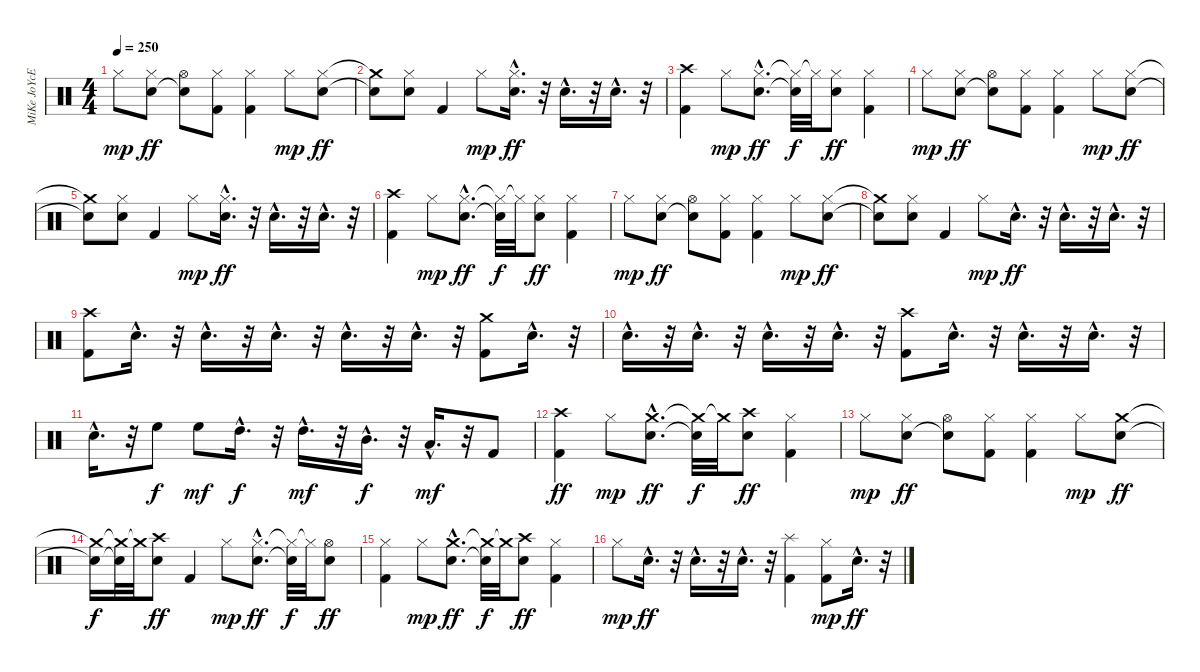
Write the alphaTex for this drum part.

\track ("MiKe JoYcE" "MiKe JoYcE") {instrument percussion}
\staff {score}
\articulation defaults
\ts (4 4)
\tempo 250
\clef neutral
\ks c "Hi-Hat (closed)".8{dy mp}
("Hi-Hat (closed)" "Electric Snare (hit)").8{dy ff} ("Hi-Hat (open)" "Electric Snare (hit)"{t}).8 ("Hi-Hat (closed)" "Kick (hit) 2").8 ("Hi-Hat (closed)" "Kick (hit) 2").4 "Hi-Hat (closed)".8{dy mp} ("Hi-Hat (closed)" "Electric Snare (hit)").8{dy ff} |
("Crash medium (hit)"{t} "Electric Snare (hit)"{t}).8 ("Hi-Hat (closed)" "Electric Snare (hit)").8 "Kick (hit) 2".4 "Hi-Hat (closed)".8{dy mp} ("Hi-Hat (closed)"{hac} "Electric Snare (hit)"{hac}).16{d dy ff} r.32 "Electric Snare (hit)"{hac}.16{d} r.32 "Electric Snare (hit)"{hac}.16{d} r.32 |
("Crash high (hit)" "Kick (hit) 2").4 "Hi-Hat (closed)".8{dy mp} ("Hi-Hat (closed)"{hac} "Electric Snare (hit)"{hac}).8{d dy ff} ("Hi-Hat (closed)"{t} "Electric Snare (hit)"{t}).32{dy f} "Hi-Hat (closed)"{t}.32 ("Hi-Hat (closed)" "Electric Snare (hit)").8{dy ff} ("Hi-Hat (closed)" "Kick (hit) 2").4 |
"Hi-Hat (closed)".8{dy mp} ("Hi-Hat (closed)" "Electric Snare (hit)").8{dy ff} ("Hi-Hat (open)" "Electric Snare (hit)"{t}).8 ("Hi-Hat (closed)" "Kick (hit) 2").8 ("Hi-Hat (closed)" "Kick (hit) 2").4 "Hi-Hat (closed)".8{dy mp} ("Hi-Hat (closed)" "Electric Snare (hit)").8{dy ff} |
("Crash medium (hit)"{t} "Electric Snare (hit)"{t}).8 ("Hi-Hat (closed)" "Electric Snare (hit)").8 "Kick (hit) 2".4 "Hi-Hat (closed)".8{dy mp} ("Hi-Hat (closed)"{hac} "Electric Snare (hit)"{hac}).16{d dy ff} r.32 "Electric Snare (hit)"{hac}.16{d} r.32 "Electric Snare (hit)"{hac}.16{d} r.32 |
("Crash high (hit)" "Kick (hit) 2").4 "Hi-Hat (closed)".8{dy mp} ("Hi-Hat (closed)"{hac} "Electric Snare (hit)"{hac}).8{d dy ff} ("Hi-Hat (closed)"{t} "Electric Snare (hit)"{t}).32{dy f} "Hi-Hat (closed)"{t}.32 ("Hi-Hat (closed)" "Electric Snare (hit)").8{dy ff} ("Hi-Hat (closed)" "Kick (hit) 2").4 |
"Hi-Hat (closed)".8{dy mp} ("Hi-Hat (closed)" "Electric Snare (hit)").8{dy ff} ("Hi-Hat (open)" "Electric Snare (hit)"{t}).8 ("Hi-Hat (closed)" "Kick (hit) 2").8 ("Hi-Hat (closed)" "Kick (hit) 2").4 "Hi-Hat (closed)".8{dy mp} ("Hi-Hat (closed)" "Electric Snare (hit)").8{dy ff} |
("Crash medium (hit)"{t} "Electric Snare (hit)"{t}).8 ("Hi-Hat (closed)" "Electric Snare (hit)").8 "Kick (hit) 2".4 "Hi-Hat (closed)".8{dy mp} "Electric Snare (hit)"{hac}.16{d dy ff} r.32 "Electric Snare (hit)"{hac}.16{d} r.32 "Electric Snare (hit)"{hac}.16{d} r.32 |
("Crash high (hit)" "Kick (hit) 2").8 "Electric Snare (hit)"{hac}.16{d} r.32 "Electric Snare (hit)"{hac}.16{d} r.32 "Electric Snare (hit)"{hac}.16{d} r.32 "Electric Snare (hit)"{hac}.16{d} r.32 "Electric Snare (hit)"{hac}.16{d} r.32 ("Crash medium (hit)" "Kick (hit) 2").8 "Electric Snare (hit)"{hac}.16{d} r.32 |
"Electric Snare (hit)"{hac}.16{d} r.32 "Electric Snare (hit)"{hac}.16{d} r.32 "Electric Snare (hit)"{hac}.16{d} r.32 "Electric Snare (hit)"{hac}.16{d} r.32 ("Crash high (hit)" "Kick (hit) 2").8 "Electric Snare (hit)"{hac}.16{d} r.32 "Electric Snare (hit)"{hac}.16{d} r.32 "Electric Snare (hit)"{hac}.16{d} r.32 |
"Electric Snare (hit)"{hac}.16{d} r.32 "High Floor Tom (hit)".8{dy f} "High Floor Tom (hit)".8{dy mf} "High Tom (hit)"{hac}.16{d dy f} r.32 "High Tom (hit)"{hac}.16{d dy mf} r.32 "Mid Tom (hit)"{hac}.16{d dy f} r.32 "Low Floor Tom (hit)"{hac}.16{d dy mf} r.32 "Kick (hit) 2".8 |
("Crash high (hit)" "Kick (hit) 2").4{dy ff} "Hi-Hat (closed)".8{dy mp} ("Crash medium (hit)"{hac} "Electric Snare (hit)"{hac}).8{d dy ff} ("Crash medium (hit)"{t} "Electric Snare (hit)"{t}).32{dy f} "Crash medium (hit)"{t}.32 ("Crash high (hit)" "Electric Snare (hit)").8{dy ff} ("Hi-Hat (closed)" "Kick (hit) 2").4 |
"Hi-Hat (closed)".8{dy mp} ("Hi-Hat (closed)" "Electric Snare (hit)").8{dy ff} ("Hi-Hat (open)" "Electric Snare (hit)"{t}).8 ("Hi-Hat (closed)" "Kick (hit) 2").8 ("Hi-Hat (closed)" "Kick (hit) 2").4 "Hi-Hat (closed)".8{dy mp} ("Crash medium (hit)" "Electric Snare (hit)").8{dy ff} |
("Crash medium (hit)"{t} "Electric Snare (hit)"{t}).16{dy f} ("Crash medium (hit)"{t} "Electric Snare (hit)"{t}).32 "Crash medium (hit)"{t}.32 ("Crash high (hit)" "Electric Snare (hit)").8{dy ff} "Kick (hit) 2".4 "Hi-Hat (closed)".8{dy mp} ("Hi-Hat (closed)"{hac} "Electric Snare (hit)"{hac}).8{d dy ff} ("Hi-Hat (closed)"{t} "Electric Snare (hit)"{t}).32{dy f} "Hi-Hat (closed)"{t}.32 ("Hi-Hat (open)" "Electric Snare (hit)").8{dy ff} |
("Hi-Hat (closed)" "Kick (hit) 2").4 "Hi-Hat (closed)".8{dy mp} ("Crash medium (hit)"{hac} "Electric Snare (hit)"{hac}).8{d dy ff} ("Crash medium (hit)"{t} "Electric Snare (hit)"{t}).32{dy f} "Crash medium (hit)"{t}.32 ("Crash high (hit)" "Electric Snare (hit)").8{dy ff} ("Hi-Hat (closed)" "Kick (hit) 2").4 |
"Hi-Hat (closed)".8{dy mp} "Electric Snare (hit)"{hac}.16{d dy ff} r.32 "Electric Snare (hit)"{hac}.16{d} r.32 "Electric Snare (hit)"{hac}.16{d} r.32 ("Splash (hit)" "Kick (hit) 2").4 ("Hi-Hat (closed)" "Kick (hit) 2").8{dy mp} "Electric Snare (hit)"{hac}.16{d dy ff} r.32
